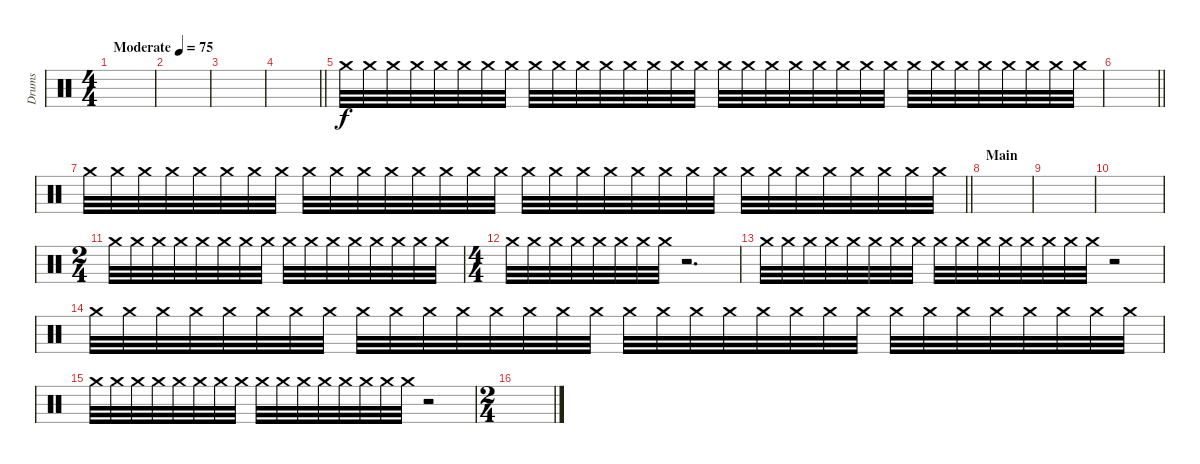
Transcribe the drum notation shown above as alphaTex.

\track ("Drums" "Drums") {instrument percussion}
\staff {score}
\articulation defaults
\ts (4 4)
\tempo (75 "Moderate")
\clef neutral
\ks c
|
|
|
\barLineRight lightlight
|
"Crash medium (hit)".32{volume 0} "Crash medium (hit)".32{volume 5} "Crash medium (hit)".32 "Crash medium (hit)".32 "Crash medium (hit)".32 "Crash medium (hit)".32 "Crash medium (hit)".32 "Crash medium (hit)".32 "Crash medium (hit)".32 "Crash medium (hit)".32 "Crash medium (hit)".32 "Crash medium (hit)".32 "Crash medium (hit)".32 "Crash medium (hit)".32 "Crash medium (hit)".32 "Crash medium (hit)".32 "Crash medium (hit)".32 "Crash medium (hit)".32 "Crash medium (hit)".32 "Crash medium (hit)".32 "Crash medium (hit)".32 "Crash medium (hit)".32 "Crash medium (hit)".32 "Crash medium (hit)".32 "Crash medium (hit)".32 "Crash medium (hit)".32 "Crash medium (hit)".32 "Crash medium (hit)".32 "Crash medium (hit)".32 "Crash medium (hit)".32 "Crash medium (hit)".32 "Crash medium (hit)".32 |
\barLineRight lightlight
|
\barLineRight lightlight "Crash medium (hit)".32{volume 0} "Crash medium (hit)".32{volume 13} "Crash medium (hit)".32 "Crash medium (hit)".32 "Crash medium (hit)".32 "Crash medium (hit)".32 "Crash medium (hit)".32 "Crash medium (hit)".32 "Crash medium (hit)".32 "Crash medium (hit)".32 "Crash medium (hit)".32 "Crash medium (hit)".32 "Crash medium (hit)".32 "Crash medium (hit)".32 "Crash medium (hit)".32 "Crash medium (hit)".32 "Crash medium (hit)".32 "Crash medium (hit)".32 "Crash medium (hit)".32 "Crash medium (hit)".32 "Crash medium (hit)".32 "Crash medium (hit)".32 "Crash medium (hit)".32 "Crash medium (hit)".32 "Crash medium (hit)".32 "Crash medium (hit)".32 "Crash medium (hit)".32 "Crash medium (hit)".32 "Crash medium (hit)".32 "Crash medium (hit)".32 "Crash medium (hit)".32 "Crash medium (hit)".32
|
\section ("" "Main")
|
|
|
\ts (2 4)
"Crash medium (hit)".32{volume 0} "Crash medium (hit)".32{volume 13} "Crash medium (hit)".32 "Crash medium (hit)".32 "Crash medium (hit)".32 "Crash medium (hit)".32 "Crash medium (hit)".32 "Crash medium (hit)".32 "Crash medium (hit)".32 "Crash medium (hit)".32 "Crash medium (hit)".32 "Crash medium (hit)".32 "Crash medium (hit)".32 "Crash medium (hit)".32 "Crash medium (hit)".32 "Crash medium (hit)".32 |
\ts (4 4)
"Crash medium (hit)".32 "Crash medium (hit)".32 "Crash medium (hit)".32 "Crash medium (hit)".32 "Crash medium (hit)".32 "Crash medium (hit)".32 "Crash medium (hit)".32 "Crash medium (hit)".32 r.2{d} |
"Crash medium (hit)".32{volume 0} "Crash medium (hit)".32{volume 13} "Crash medium (hit)".32 "Crash medium (hit)".32 "Crash medium (hit)".32 "Crash medium (hit)".32 "Crash medium (hit)".32 "Crash medium (hit)".32 "Crash medium (hit)".32 "Crash medium (hit)".32 "Crash medium (hit)".32 "Crash medium (hit)".32 "Crash medium (hit)".32 "Crash medium (hit)".32 "Crash medium (hit)".32 "Crash medium (hit)".32 r.2 |
"Crash medium (hit)".32{volume 0} "Crash medium (hit)".32{volume 13} "Crash medium (hit)".32 "Crash medium (hit)".32 "Crash medium (hit)".32 "Crash medium (hit)".32 "Crash medium (hit)".32 "Crash medium (hit)".32 "Crash medium (hit)".32 "Crash medium (hit)".32 "Crash medium (hit)".32 "Crash medium (hit)".32 "Crash medium (hit)".32 "Crash medium (hit)".32 "Crash medium (hit)".32 "Crash medium (hit)".32 "Crash medium (hit)".32 "Crash medium (hit)".32 "Crash medium (hit)".32 "Crash medium (hit)".32 "Crash medium (hit)".32 "Crash medium (hit)".32 "Crash medium (hit)".32 "Crash medium (hit)".32 "Crash medium (hit)".32 "Crash medium (hit)".32 "Crash medium (hit)".32 "Crash medium (hit)".32 "Crash medium (hit)".32 "Crash medium (hit)".32 "Crash medium (hit)".32 "Crash medium (hit)".32 |
"Crash medium (hit)".32 "Crash medium (hit)".32 "Crash medium (hit)".32 "Crash medium (hit)".32 "Crash medium (hit)".32 "Crash medium (hit)".32 "Crash medium (hit)".32 "Crash medium (hit)".32 "Crash medium (hit)".32 "Crash medium (hit)".32 "Crash medium (hit)".32 "Crash medium (hit)".32 "Crash medium (hit)".32 "Crash medium (hit)".32 "Crash medium (hit)".32 "Crash medium (hit)".32 r.2 |
\ts (2 4)
